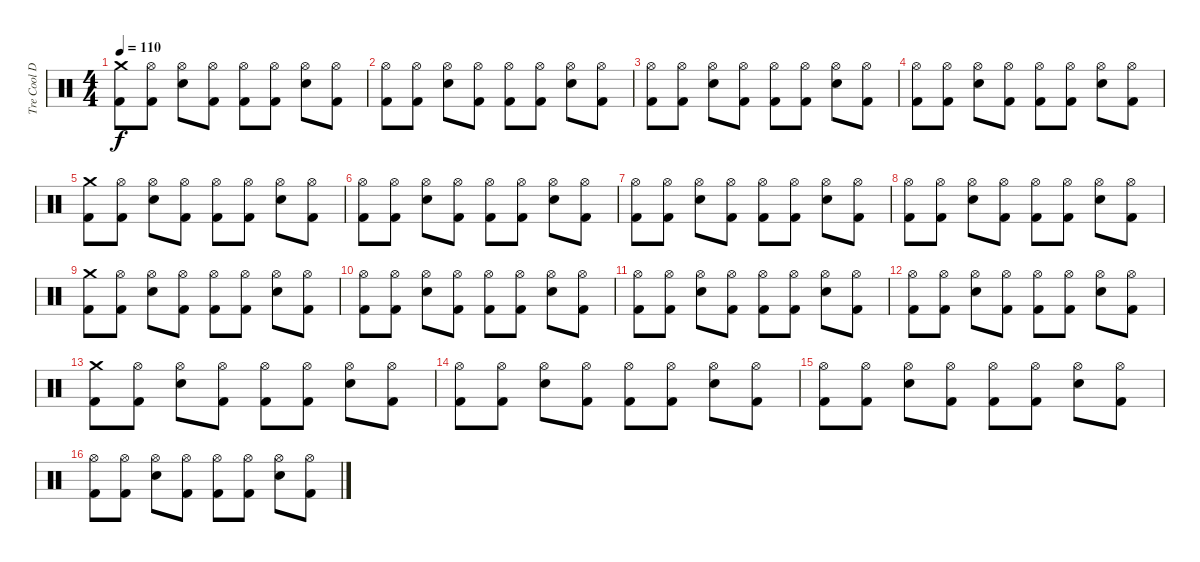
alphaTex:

\track ("Tre Cool Drums" "Tre Cool D") {instrument percussion}
\staff {score}
\articulation defaults
\ts (4 4)
\tempo 110
\clef neutral
\ks c
("Crash medium (hit)" "Kick (hit) 2").8{dy f} ("Hi-Hat (open)" "Kick (hit) 2").8 ("Hi-Hat (open)" "Electric Snare (hit)").8 ("Hi-Hat (open)" "Kick (hit) 2").8 ("Hi-Hat (open)" "Kick (hit) 2").8 ("Hi-Hat (open)" "Kick (hit) 2").8 ("Hi-Hat (open)" "Electric Snare (hit)").8 ("Hi-Hat (open)" "Kick (hit) 2").8 |
("Hi-Hat (open)" "Kick (hit) 2").8 ("Hi-Hat (open)" "Kick (hit) 2").8 ("Hi-Hat (open)" "Electric Snare (hit)").8 ("Hi-Hat (open)" "Kick (hit) 2").8 ("Hi-Hat (open)" "Kick (hit) 2").8 ("Hi-Hat (open)" "Kick (hit) 2").8 ("Hi-Hat (open)" "Electric Snare (hit)").8 ("Hi-Hat (open)" "Kick (hit) 2").8 |
("Hi-Hat (open)" "Kick (hit) 2").8 ("Hi-Hat (open)" "Kick (hit) 2").8 ("Hi-Hat (open)" "Electric Snare (hit)").8 ("Hi-Hat (open)" "Kick (hit) 2").8 ("Hi-Hat (open)" "Kick (hit) 2").8 ("Hi-Hat (open)" "Kick (hit) 2").8 ("Hi-Hat (open)" "Electric Snare (hit)").8 ("Hi-Hat (open)" "Kick (hit) 2").8 |
("Hi-Hat (open)" "Kick (hit) 2").8 ("Hi-Hat (open)" "Kick (hit) 2").8 ("Hi-Hat (open)" "Electric Snare (hit)").8 ("Hi-Hat (open)" "Kick (hit) 2").8 ("Hi-Hat (open)" "Kick (hit) 2").8 ("Hi-Hat (open)" "Kick (hit) 2").8 ("Hi-Hat (open)" "Electric Snare (hit)").8 ("Hi-Hat (open)" "Kick (hit) 2").8 |
("Crash medium (hit)" "Kick (hit) 2").8 ("Hi-Hat (open)" "Kick (hit) 2").8 ("Hi-Hat (open)" "Electric Snare (hit)").8 ("Hi-Hat (open)" "Kick (hit) 2").8 ("Hi-Hat (open)" "Kick (hit) 2").8 ("Hi-Hat (open)" "Kick (hit) 2").8 ("Hi-Hat (open)" "Electric Snare (hit)").8 ("Hi-Hat (open)" "Kick (hit) 2").8 |
("Hi-Hat (open)" "Kick (hit) 2").8 ("Hi-Hat (open)" "Kick (hit) 2").8 ("Hi-Hat (open)" "Electric Snare (hit)").8 ("Hi-Hat (open)" "Kick (hit) 2").8 ("Hi-Hat (open)" "Kick (hit) 2").8 ("Hi-Hat (open)" "Kick (hit) 2").8 ("Hi-Hat (open)" "Electric Snare (hit)").8 ("Hi-Hat (open)" "Kick (hit) 2").8 |
("Hi-Hat (open)" "Kick (hit) 2").8 ("Hi-Hat (open)" "Kick (hit) 2").8 ("Hi-Hat (open)" "Electric Snare (hit)").8 ("Hi-Hat (open)" "Kick (hit) 2").8 ("Hi-Hat (open)" "Kick (hit) 2").8 ("Hi-Hat (open)" "Kick (hit) 2").8 ("Hi-Hat (open)" "Electric Snare (hit)").8 ("Hi-Hat (open)" "Kick (hit) 2").8 |
("Hi-Hat (open)" "Kick (hit) 2").8 ("Hi-Hat (open)" "Kick (hit) 2").8 ("Hi-Hat (open)" "Electric Snare (hit)").8 ("Hi-Hat (open)" "Kick (hit) 2").8 ("Hi-Hat (open)" "Kick (hit) 2").8 ("Hi-Hat (open)" "Kick (hit) 2").8 ("Hi-Hat (open)" "Electric Snare (hit)").8 ("Hi-Hat (open)" "Kick (hit) 2").8 |
("Crash medium (hit)" "Kick (hit) 2").8 ("Hi-Hat (open)" "Kick (hit) 2").8 ("Hi-Hat (open)" "Electric Snare (hit)").8 ("Hi-Hat (open)" "Kick (hit) 2").8 ("Hi-Hat (open)" "Kick (hit) 2").8 ("Hi-Hat (open)" "Kick (hit) 2").8 ("Hi-Hat (open)" "Electric Snare (hit)").8 ("Hi-Hat (open)" "Kick (hit) 2").8 |
("Hi-Hat (open)" "Kick (hit) 2").8 ("Hi-Hat (open)" "Kick (hit) 2").8 ("Hi-Hat (open)" "Electric Snare (hit)").8 ("Hi-Hat (open)" "Kick (hit) 2").8 ("Hi-Hat (open)" "Kick (hit) 2").8 ("Hi-Hat (open)" "Kick (hit) 2").8 ("Hi-Hat (open)" "Electric Snare (hit)").8 ("Hi-Hat (open)" "Kick (hit) 2").8 |
("Hi-Hat (open)" "Kick (hit) 2").8 ("Hi-Hat (open)" "Kick (hit) 2").8 ("Hi-Hat (open)" "Electric Snare (hit)").8 ("Hi-Hat (open)" "Kick (hit) 2").8 ("Hi-Hat (open)" "Kick (hit) 2").8 ("Hi-Hat (open)" "Kick (hit) 2").8 ("Hi-Hat (open)" "Electric Snare (hit)").8 ("Hi-Hat (open)" "Kick (hit) 2").8 |
("Hi-Hat (open)" "Kick (hit) 2").8 ("Hi-Hat (open)" "Kick (hit) 2").8 ("Hi-Hat (open)" "Electric Snare (hit)").8 ("Hi-Hat (open)" "Kick (hit) 2").8 ("Hi-Hat (open)" "Kick (hit) 2").8 ("Hi-Hat (open)" "Kick (hit) 2").8 ("Hi-Hat (open)" "Electric Snare (hit)").8 ("Hi-Hat (open)" "Kick (hit) 2").8 |
("Crash medium (hit)" "Kick (hit) 2").8 ("Hi-Hat (open)" "Kick (hit) 2").8 ("Hi-Hat (open)" "Electric Snare (hit)").8 ("Hi-Hat (open)" "Kick (hit) 2").8 ("Hi-Hat (open)" "Kick (hit) 2").8 ("Hi-Hat (open)" "Kick (hit) 2").8 ("Hi-Hat (open)" "Electric Snare (hit)").8 ("Hi-Hat (open)" "Kick (hit) 2").8 |
("Hi-Hat (open)" "Kick (hit) 2").8 ("Hi-Hat (open)" "Kick (hit) 2").8 ("Hi-Hat (open)" "Electric Snare (hit)").8 ("Hi-Hat (open)" "Kick (hit) 2").8 ("Hi-Hat (open)" "Kick (hit) 2").8 ("Hi-Hat (open)" "Kick (hit) 2").8 ("Hi-Hat (open)" "Electric Snare (hit)").8 ("Hi-Hat (open)" "Kick (hit) 2").8 |
("Hi-Hat (open)" "Kick (hit) 2").8 ("Hi-Hat (open)" "Kick (hit) 2").8 ("Hi-Hat (open)" "Electric Snare (hit)").8 ("Hi-Hat (open)" "Kick (hit) 2").8 ("Hi-Hat (open)" "Kick (hit) 2").8 ("Hi-Hat (open)" "Kick (hit) 2").8 ("Hi-Hat (open)" "Electric Snare (hit)").8 ("Hi-Hat (open)" "Kick (hit) 2").8 |
("Hi-Hat (open)" "Kick (hit) 2").8 ("Hi-Hat (open)" "Kick (hit) 2").8 ("Hi-Hat (open)" "Electric Snare (hit)").8 ("Hi-Hat (open)" "Kick (hit) 2").8 ("Hi-Hat (open)" "Kick (hit) 2").8 ("Hi-Hat (open)" "Kick (hit) 2").8 ("Hi-Hat (open)" "Electric Snare (hit)").8 ("Hi-Hat (open)" "Kick (hit) 2").8
